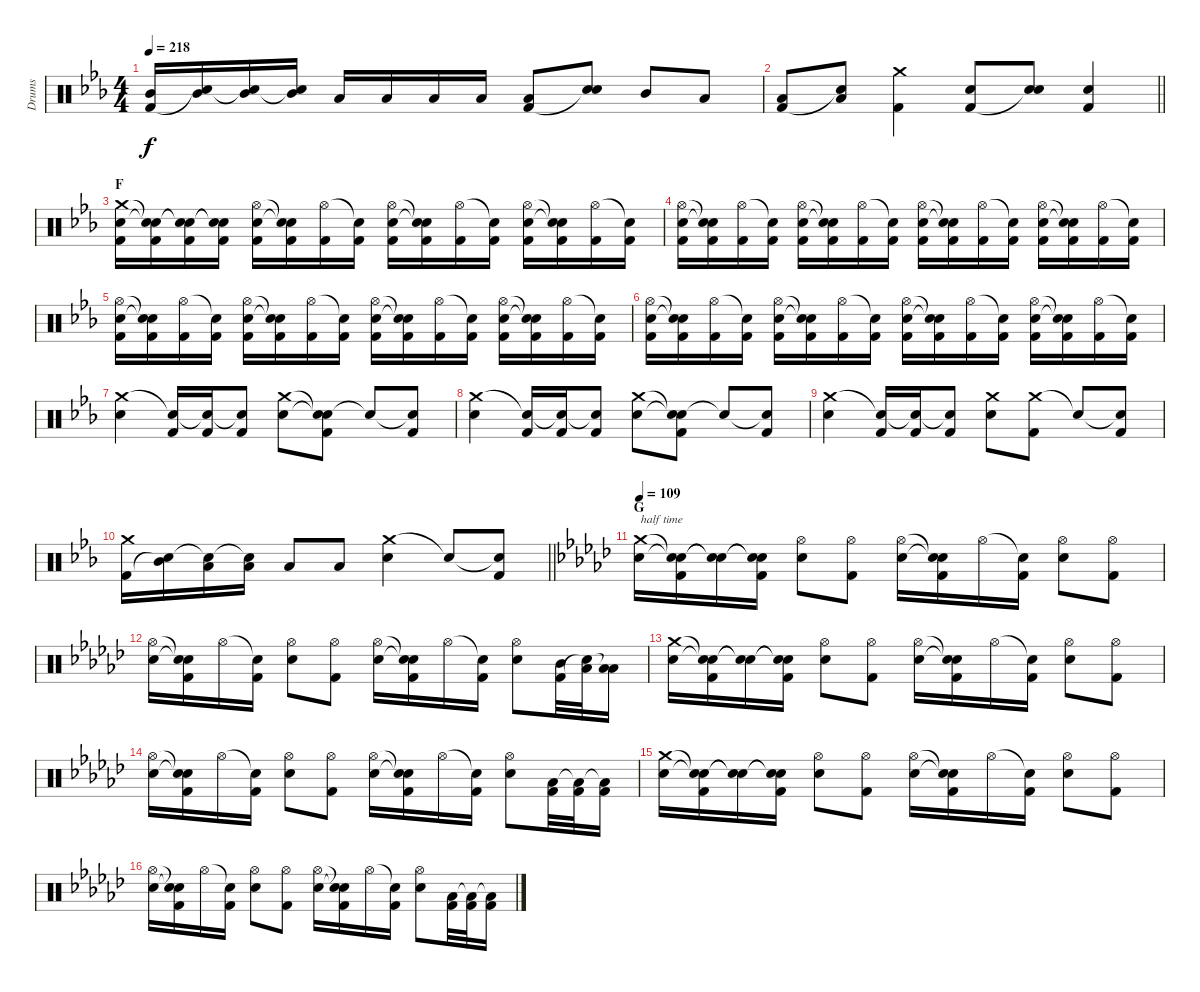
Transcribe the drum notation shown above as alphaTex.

\track ("Drums" "Drums") {instrument percussion}
\staff {score}
\articulation defaults
\ts (4 4)
\tempo 218
\clef neutral
\ks eb
("Mid Tom (hit)" "Kick (hit) 2").16{dy f} ("Mid Tom (hit)" "Snare (hit)"{t}).16 ("Mid Tom (hit)" "Snare (hit)"{t}).16 ("Mid Tom (hit)" "Snare (hit)"{t}).16 "Low Tom (hit)".16 "Low Tom (hit)".16 "Low Tom (hit)".16 "Low Tom (hit)".16 ("Low Floor Tom (hit)" "Kick (hit) 2").8 ("Electric Snare (hit)" "Snare (hit)"{t}).8 "Mid Tom (hit)".8 "Low Tom (hit)".8 |
\barLineRight lightlight
("Low Floor Tom (hit)" "Kick (hit) 2").8 ("Low Floor Tom (hit)" "Snare (hit)"{t}).8 ("Crash medium (hit)" "Kick (hit) 2").4 ("Electric Snare (hit)" "Kick (hit) 2").8 ("Electric Snare (hit)" "Snare (hit)"{t}).8 ("Electric Snare (hit)" "Kick (hit) 2").4 |
\section ("" "F")
("Crash medium (hit)" "Electric Snare (hit)" "Kick (hit) 2").16 ("Snare (hit)"{t} "Snare (hit)"{t} "Kick (hit) 2").16 ("Snare (hit)"{t} "Snare (hit)"{t} "Kick (hit) 2").16 ("Snare (hit)"{t} "Snare (hit)"{t} "Kick (hit) 2").16 ("Hi-Hat (open)" "Electric Snare (hit)" "Kick (hit) 2").16 ("Snare (hit)"{t} "Snare (hit)"{t} "Kick (hit) 2").16 ("Hi-Hat (open)" "Kick (hit) 2").16 ("Snare (hit)"{t} "Kick (hit) 2").16 ("Hi-Hat (open)" "Electric Snare (hit)" "Kick (hit) 2").16 ("Snare (hit)"{t} "Snare (hit)"{t} "Kick (hit) 2").16 ("Hi-Hat (open)" "Kick (hit) 2").16 ("Snare (hit)"{t} "Kick (hit) 2").16 ("Hi-Hat (open)" "Electric Snare (hit)" "Kick (hit) 2").16 ("Snare (hit)"{t} "Snare (hit)"{t} "Kick (hit) 2").16 ("Hi-Hat (open)" "Kick (hit) 2").16 ("Snare (hit)"{t} "Kick (hit) 2").16 |
("Hi-Hat (open)" "Electric Snare (hit)" "Kick (hit) 2").16 ("Snare (hit)"{t} "Snare (hit)"{t} "Kick (hit) 2").16 ("Hi-Hat (open)" "Kick (hit) 2").16 ("Snare (hit)"{t} "Kick (hit) 2").16 ("Hi-Hat (open)" "Electric Snare (hit)" "Kick (hit) 2").16 ("Snare (hit)"{t} "Snare (hit)"{t} "Kick (hit) 2").16 ("Hi-Hat (open)" "Kick (hit) 2").16 ("Snare (hit)"{t} "Kick (hit) 2").16 ("Hi-Hat (open)" "Electric Snare (hit)" "Kick (hit) 2").16 ("Snare (hit)"{t} "Snare (hit)"{t} "Kick (hit) 2").16 ("Hi-Hat (open)" "Kick (hit) 2").16 ("Snare (hit)"{t} "Kick (hit) 2").16 ("Hi-Hat (open)" "Electric Snare (hit)" "Kick (hit) 2").16 ("Snare (hit)"{t} "Snare (hit)"{t} "Kick (hit) 2").16 ("Hi-Hat (open)" "Kick (hit) 2").16 ("Snare (hit)"{t} "Kick (hit) 2").16 |
("Hi-Hat (open)" "Electric Snare (hit)" "Kick (hit) 2").16 ("Snare (hit)"{t} "Snare (hit)"{t} "Kick (hit) 2").16 ("Hi-Hat (open)" "Kick (hit) 2").16 ("Snare (hit)"{t} "Kick (hit) 2").16 ("Hi-Hat (open)" "Electric Snare (hit)" "Kick (hit) 2").16 ("Snare (hit)"{t} "Snare (hit)"{t} "Kick (hit) 2").16 ("Hi-Hat (open)" "Kick (hit) 2").16 ("Snare (hit)"{t} "Kick (hit) 2").16 ("Hi-Hat (open)" "Electric Snare (hit)" "Kick (hit) 2").16 ("Snare (hit)"{t} "Snare (hit)"{t} "Kick (hit) 2").16 ("Hi-Hat (open)" "Kick (hit) 2").16 ("Snare (hit)"{t} "Kick (hit) 2").16 ("Hi-Hat (open)" "Electric Snare (hit)" "Kick (hit) 2").16 ("Snare (hit)"{t} "Snare (hit)"{t} "Kick (hit) 2").16 ("Hi-Hat (open)" "Kick (hit) 2").16 ("Snare (hit)"{t} "Kick (hit) 2").16 |
("Hi-Hat (open)" "Electric Snare (hit)" "Kick (hit) 2").16 ("Snare (hit)"{t} "Snare (hit)"{t} "Kick (hit) 2").16 ("Hi-Hat (open)" "Kick (hit) 2").16 ("Snare (hit)"{t} "Kick (hit) 2").16 ("Hi-Hat (open)" "Electric Snare (hit)" "Kick (hit) 2").16 ("Snare (hit)"{t} "Snare (hit)"{t} "Kick (hit) 2").16 ("Hi-Hat (open)" "Kick (hit) 2").16 ("Snare (hit)"{t} "Kick (hit) 2").16 ("Hi-Hat (open)" "Electric Snare (hit)" "Kick (hit) 2").16 ("Snare (hit)"{t} "Snare (hit)"{t} "Kick (hit) 2").16 ("Hi-Hat (open)" "Kick (hit) 2").16 ("Snare (hit)"{t} "Kick (hit) 2").16 ("Hi-Hat (open)" "Electric Snare (hit)" "Kick (hit) 2").16 ("Snare (hit)"{t} "Snare (hit)"{t} "Kick (hit) 2").16 ("Hi-Hat (open)" "Kick (hit) 2").16 ("Snare (hit)"{t} "Kick (hit) 2").16 |
("Crash medium (hit)" "Electric Snare (hit)").4 ("Snare (hit)"{t} "Kick (hit) 2").16 ("Snare (hit)"{t} "Kick (hit) 2").16 ("Snare (hit)"{t} "Kick (hit) 2").8 ("Crash medium (hit)" "Electric Snare (hit)").8 ("Snare (hit)"{t} "Snare (hit)"{t} "Kick (hit) 2").8 "Snare (hit)"{t}.8 ("Snare (hit)"{t} "Kick (hit) 2").8 |
("Crash medium (hit)" "Electric Snare (hit)").4 ("Snare (hit)"{t} "Kick (hit) 2").16 ("Snare (hit)"{t} "Kick (hit) 2").16 ("Snare (hit)"{t} "Kick (hit) 2").8 ("Crash medium (hit)" "Electric Snare (hit)").8 ("Snare (hit)"{t} "Snare (hit)"{t} "Kick (hit) 2").8 "Snare (hit)"{t}.8 ("Snare (hit)"{t} "Kick (hit) 2").8 |
("Crash medium (hit)" "Electric Snare (hit)").4 ("Snare (hit)"{t} "Kick (hit) 2").16 ("Snare (hit)"{t} "Kick (hit) 2").16 ("Snare (hit)"{t} "Kick (hit) 2").8 ("Crash medium (hit)" "Electric Snare (hit)").8 ("Crash medium (hit)" "Kick (hit) 2").8 "Snare (hit)"{t}.8 ("Snare (hit)"{t} "Kick (hit) 2").8 |
\barLineRight lightlight
("Crash medium (hit)" "Kick (hit) 2").16 ("Mid Tom (hit)" "Snare (hit)"{t}).16 ("Low Tom (hit)" "Snare (hit)"{t}).16 ("Low Floor Tom (hit)" "Snare (hit)"{t}).16 "Low Tom (hit)".8 "Low Floor Tom (hit)".8 ("Crash medium (hit)" "Electric Snare (hit)").4 "Snare (hit)"{t}.8 ("Snare (hit)"{t} "Kick (hit) 2").8 |
\section ("" "G")
\tempo 109
\ks ebminor
("Crash medium (hit)" "Electric Snare (hit)").16{txt "half time"} ("Snare (hit)"{t} "Snare (hit)"{t} "Kick (hit) 2").16 ("Snare (hit)"{t} "Snare (hit)"{t}).16 ("Snare (hit)"{t} "Snare (hit)"{t} "Kick (hit) 2").16 ("Hi-Hat (open)" "Electric Snare (hit)").8 ("Hi-Hat (open)" "Kick (hit) 2").8 ("Hi-Hat (open)" "Electric Snare (hit)").16 ("Snare (hit)"{t} "Snare (hit)"{t} "Kick (hit) 2").16 "Hi-Hat (open)".16 ("Snare (hit)"{t} "Kick (hit) 2").16 ("Hi-Hat (open)" "Electric Snare (hit)").8 ("Hi-Hat (open)" "Kick (hit) 2").8 |
("Hi-Hat (open)" "Electric Snare (hit)").16 ("Snare (hit)"{t} "Snare (hit)"{t} "Kick (hit) 2").16 "Hi-Hat (open)".16 ("Snare (hit)"{t} "Kick (hit) 2").16 ("Hi-Hat (open)" "Electric Snare (hit)").8 ("Hi-Hat (open)" "Kick (hit) 2").8 ("Hi-Hat (open)" "Electric Snare (hit)").16 ("Snare (hit)"{t} "Snare (hit)"{t} "Kick (hit) 2").16 "Hi-Hat (open)".16 ("Snare (hit)"{t} "Kick (hit) 2").16 ("Hi-Hat (open)" "Electric Snare (hit)").8 ("Mid Tom (hit)" "Kick (hit) 2").32 ("Low Tom (hit)" "Snare (hit)"{t}).32 ("Low Floor Tom (hit)" "Low Floor Tom (hit)"{t}).16 |
("Crash medium (hit)" "Electric Snare (hit)").16 ("Snare (hit)"{t} "Snare (hit)"{t} "Kick (hit) 2").16 ("Snare (hit)"{t} "Snare (hit)"{t}).16 ("Snare (hit)"{t} "Snare (hit)"{t} "Kick (hit) 2").16 ("Hi-Hat (open)" "Electric Snare (hit)").8 ("Hi-Hat (open)" "Kick (hit) 2").8 ("Hi-Hat (open)" "Electric Snare (hit)").16 ("Snare (hit)"{t} "Snare (hit)"{t} "Kick (hit) 2").16 "Hi-Hat (open)".16 ("Snare (hit)"{t} "Kick (hit) 2").16 ("Hi-Hat (open)" "Electric Snare (hit)").8 ("Hi-Hat (open)" "Kick (hit) 2").8 |
("Hi-Hat (open)" "Electric Snare (hit)").16 ("Snare (hit)"{t} "Snare (hit)"{t} "Kick (hit) 2").16 "Hi-Hat (open)".16 ("Snare (hit)"{t} "Kick (hit) 2").16 ("Hi-Hat (open)" "Electric Snare (hit)").8 ("Hi-Hat (open)" "Kick (hit) 2").8 ("Hi-Hat (open)" "Electric Snare (hit)").16 ("Snare (hit)"{t} "Snare (hit)"{t} "Kick (hit) 2").16 "Hi-Hat (open)".16 ("Snare (hit)"{t} "Kick (hit) 2").16 ("Hi-Hat (open)" "Electric Snare (hit)").8 ("Low Floor Tom (hit)" "Kick (hit) 2").32 ("Low Floor Tom (hit)"{t} "Kick (hit) 2").32 ("Low Floor Tom (hit)"{t} "Kick (hit) 2").16 |
("Crash medium (hit)" "Electric Snare (hit)").16 ("Snare (hit)"{t} "Snare (hit)"{t} "Kick (hit) 2").16 ("Snare (hit)"{t} "Snare (hit)"{t}).16 ("Snare (hit)"{t} "Snare (hit)"{t} "Kick (hit) 2").16 ("Hi-Hat (open)" "Electric Snare (hit)").8 ("Hi-Hat (open)" "Kick (hit) 2").8 ("Hi-Hat (open)" "Electric Snare (hit)").16 ("Snare (hit)"{t} "Snare (hit)"{t} "Kick (hit) 2").16 "Hi-Hat (open)".16 ("Snare (hit)"{t} "Kick (hit) 2").16 ("Hi-Hat (open)" "Electric Snare (hit)").8 ("Hi-Hat (open)" "Kick (hit) 2").8 |
("Hi-Hat (open)" "Electric Snare (hit)").16 ("Snare (hit)"{t} "Snare (hit)"{t} "Kick (hit) 2").16 "Hi-Hat (open)".16 ("Snare (hit)"{t} "Kick (hit) 2").16 ("Hi-Hat (open)" "Electric Snare (hit)").8 ("Hi-Hat (open)" "Kick (hit) 2").8 ("Hi-Hat (open)" "Electric Snare (hit)").16 ("Snare (hit)"{t} "Snare (hit)"{t} "Kick (hit) 2").16 "Hi-Hat (open)".16 ("Snare (hit)"{t} "Kick (hit) 2").16 ("Hi-Hat (open)" "Electric Snare (hit)").8 ("Low Floor Tom (hit)" "Kick (hit) 2").32 ("Low Floor Tom (hit)"{t} "Kick (hit) 2").32 ("Low Floor Tom (hit)"{t} "Kick (hit) 2").16
